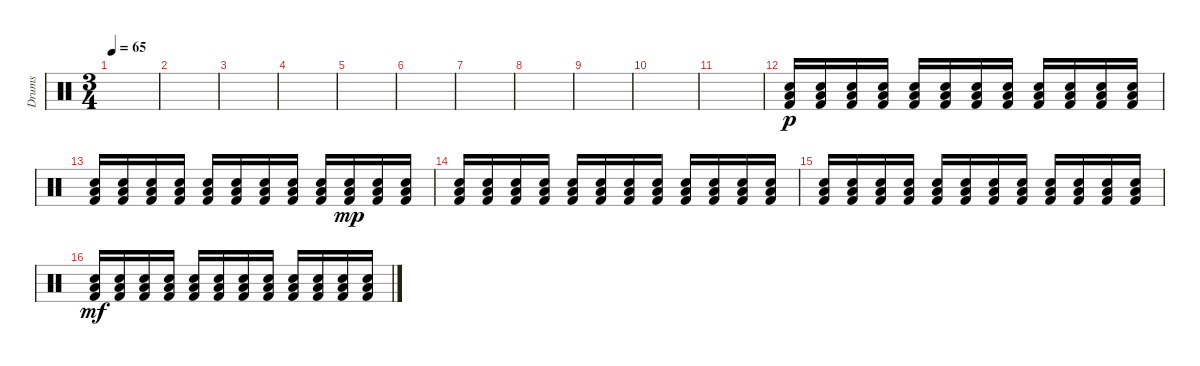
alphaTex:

\track ("Drums" "Drums") {instrument percussion}
\staff {score}
\articulation defaults
\ts (3 4)
\tempo 65
\clef neutral
\ks c
|
|
|
|
|
|
|
|
|
|
|
("Kick (hit) 2" "Electric Snare (hit)" "Low Tom (hit)").16{dy p} ("Kick (hit) 2" "Electric Snare (hit)" "Low Tom (hit)").16 ("Kick (hit) 2" "Electric Snare (hit)" "Low Tom (hit)").16 ("Kick (hit) 2" "Electric Snare (hit)" "Low Tom (hit)").16 ("Kick (hit) 2" "Electric Snare (hit)" "Low Tom (hit)").16 ("Kick (hit) 2" "Electric Snare (hit)" "Low Tom (hit)").16 ("Kick (hit) 2" "Electric Snare (hit)" "Low Tom (hit)").16 ("Kick (hit) 2" "Electric Snare (hit)" "Low Tom (hit)").16 ("Kick (hit) 2" "Electric Snare (hit)" "Low Tom (hit)").16 ("Kick (hit) 2" "Electric Snare (hit)" "Low Tom (hit)").16 ("Kick (hit) 2" "Electric Snare (hit)" "Low Tom (hit)").16 ("Kick (hit) 2" "Electric Snare (hit)" "Low Tom (hit)").16 |
("Kick (hit) 2" "Electric Snare (hit)" "Low Tom (hit)").16 ("Kick (hit) 2" "Electric Snare (hit)" "Low Tom (hit)").16 ("Kick (hit) 2" "Electric Snare (hit)" "Low Tom (hit)").16 ("Kick (hit) 2" "Electric Snare (hit)" "Low Tom (hit)").16 ("Kick (hit) 2" "Electric Snare (hit)" "Low Tom (hit)").16 ("Kick (hit) 2" "Electric Snare (hit)" "Low Tom (hit)").16 ("Kick (hit) 2" "Electric Snare (hit)" "Low Tom (hit)").16 ("Kick (hit) 2" "Electric Snare (hit)" "Low Tom (hit)").16 ("Kick (hit) 2" "Electric Snare (hit)" "Low Tom (hit)").16 ("Kick (hit) 2" "Electric Snare (hit)" "Low Tom (hit)").16{dy mp} ("Kick (hit) 2" "Electric Snare (hit)" "Low Tom (hit)").16 ("Kick (hit) 2" "Electric Snare (hit)" "Low Tom (hit)").16 |
("Kick (hit) 2" "Electric Snare (hit)" "Low Tom (hit)").16 ("Kick (hit) 2" "Electric Snare (hit)" "Low Tom (hit)").16 ("Kick (hit) 2" "Electric Snare (hit)" "Low Tom (hit)").16 ("Kick (hit) 2" "Electric Snare (hit)" "Low Tom (hit)").16 ("Kick (hit) 2" "Electric Snare (hit)" "Low Tom (hit)").16 ("Kick (hit) 2" "Electric Snare (hit)" "Low Tom (hit)").16 ("Kick (hit) 2" "Electric Snare (hit)" "Low Tom (hit)").16 ("Kick (hit) 2" "Electric Snare (hit)" "Low Tom (hit)").16 ("Kick (hit) 2" "Electric Snare (hit)" "Low Tom (hit)").16 ("Kick (hit) 2" "Electric Snare (hit)" "Low Tom (hit)").16 ("Kick (hit) 2" "Electric Snare (hit)" "Low Tom (hit)").16 ("Kick (hit) 2" "Electric Snare (hit)" "Low Tom (hit)").16 |
("Kick (hit) 2" "Electric Snare (hit)" "Low Tom (hit)").16 ("Kick (hit) 2" "Electric Snare (hit)" "Low Tom (hit)").16 ("Kick (hit) 2" "Electric Snare (hit)" "Low Tom (hit)").16 ("Kick (hit) 2" "Electric Snare (hit)" "Low Tom (hit)").16 ("Kick (hit) 2" "Electric Snare (hit)" "Low Tom (hit)").16 ("Kick (hit) 2" "Electric Snare (hit)" "Low Tom (hit)").16 ("Kick (hit) 2" "Electric Snare (hit)" "Low Tom (hit)").16 ("Kick (hit) 2" "Electric Snare (hit)" "Low Tom (hit)").16 ("Kick (hit) 2" "Electric Snare (hit)" "Low Tom (hit)").16 ("Kick (hit) 2" "Electric Snare (hit)" "Low Tom (hit)").16 ("Kick (hit) 2" "Electric Snare (hit)" "Low Tom (hit)").16 ("Kick (hit) 2" "Electric Snare (hit)" "Low Tom (hit)").16 |
("Kick (hit) 2" "Electric Snare (hit)" "Low Tom (hit)").16{dy mf} ("Kick (hit) 2" "Electric Snare (hit)" "Low Tom (hit)").16 ("Kick (hit) 2" "Electric Snare (hit)" "Low Tom (hit)").16 ("Kick (hit) 2" "Electric Snare (hit)" "Low Tom (hit)").16 ("Kick (hit) 2" "Electric Snare (hit)" "Low Tom (hit)").16 ("Kick (hit) 2" "Electric Snare (hit)" "Low Tom (hit)").16 ("Kick (hit) 2" "Electric Snare (hit)" "Low Tom (hit)").16 ("Kick (hit) 2" "Electric Snare (hit)" "Low Tom (hit)").16 ("Kick (hit) 2" "Electric Snare (hit)" "Low Tom (hit)").16 ("Kick (hit) 2" "Electric Snare (hit)" "Low Tom (hit)").16 ("Kick (hit) 2" "Electric Snare (hit)" "Low Tom (hit)").16 ("Kick (hit) 2" "Electric Snare (hit)" "Low Tom (hit)").16
